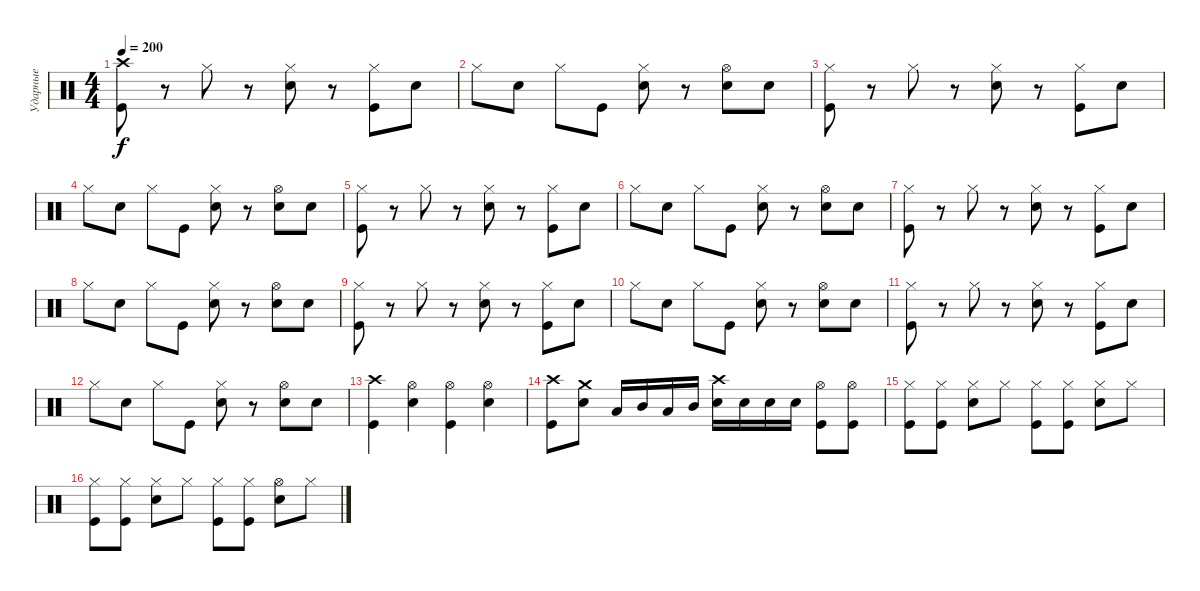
\track ("Ударные" "Ударные") {instrument percussion}
\staff {score}
\articulation defaults
\ts (4 4)
\tempo 200
\clef neutral
\ks c
("Crash high (hit)" "Kick (hit)").8{dy f} r.8 "Hi-Hat (closed)".8 r.8 ("Hi-Hat (closed)" "Electric Snare (hit)").8 r.8 ("Hi-Hat (closed)" "Kick (hit)").8 "Electric Snare (hit)".8 |
"Hi-Hat (closed)".8 "Electric Snare (hit)".8 "Hi-Hat (closed)".8 "Kick (hit)".8 ("Electric Snare (hit)" "Hi-Hat (closed)").8 r.8 ("Electric Snare (hit)" "Hi-Hat (open)").8 "Electric Snare (hit)".8 |
("Hi-Hat (closed)" "Kick (hit)").8 r.8 "Hi-Hat (closed)".8 r.8 ("Hi-Hat (closed)" "Electric Snare (hit)").8 r.8 ("Hi-Hat (closed)" "Kick (hit)").8 "Electric Snare (hit)".8 |
"Hi-Hat (closed)".8 "Electric Snare (hit)".8 "Hi-Hat (closed)".8 "Kick (hit)".8 ("Electric Snare (hit)" "Hi-Hat (closed)").8 r.8 ("Electric Snare (hit)" "Hi-Hat (open)").8 "Electric Snare (hit)".8 |
("Hi-Hat (closed)" "Kick (hit)").8 r.8 "Hi-Hat (closed)".8 r.8 ("Hi-Hat (closed)" "Electric Snare (hit)").8 r.8 ("Hi-Hat (closed)" "Kick (hit)").8 "Electric Snare (hit)".8 |
"Hi-Hat (closed)".8 "Electric Snare (hit)".8 "Hi-Hat (closed)".8 "Kick (hit)".8 ("Electric Snare (hit)" "Hi-Hat (closed)").8 r.8 ("Electric Snare (hit)" "Hi-Hat (open)").8 "Electric Snare (hit)".8 |
("Hi-Hat (closed)" "Kick (hit)").8 r.8 "Hi-Hat (closed)".8 r.8 ("Hi-Hat (closed)" "Electric Snare (hit)").8 r.8 ("Hi-Hat (closed)" "Kick (hit)").8 "Electric Snare (hit)".8 |
"Hi-Hat (closed)".8 "Electric Snare (hit)".8 "Hi-Hat (closed)".8 "Kick (hit)".8 ("Electric Snare (hit)" "Hi-Hat (closed)").8 r.8 ("Electric Snare (hit)" "Hi-Hat (open)").8 "Electric Snare (hit)".8 |
("Hi-Hat (closed)" "Kick (hit)").8 r.8 "Hi-Hat (closed)".8 r.8 ("Hi-Hat (closed)" "Electric Snare (hit)").8 r.8 ("Hi-Hat (closed)" "Kick (hit)").8 "Electric Snare (hit)".8 |
"Hi-Hat (closed)".8 "Electric Snare (hit)".8 "Hi-Hat (closed)".8 "Kick (hit)".8 ("Electric Snare (hit)" "Hi-Hat (closed)").8 r.8 ("Electric Snare (hit)" "Hi-Hat (open)").8 "Electric Snare (hit)".8 |
("Hi-Hat (closed)" "Kick (hit)").8 r.8 "Hi-Hat (closed)".8 r.8 ("Hi-Hat (closed)" "Electric Snare (hit)").8 r.8 ("Hi-Hat (closed)" "Kick (hit)").8 "Electric Snare (hit)".8 |
"Hi-Hat (closed)".8 "Electric Snare (hit)".8 "Hi-Hat (closed)".8 "Kick (hit)".8 ("Electric Snare (hit)" "Hi-Hat (closed)").8 r.8 ("Electric Snare (hit)" "Hi-Hat (open)").8 "Electric Snare (hit)".8 |
("Crash high (hit)" "Kick (hit)").4 ("Hi-Hat (open)" "Electric Snare (hit)").4 ("Hi-Hat (open)" "Kick (hit)").4 ("Hi-Hat (open)" "Electric Snare (hit)").4 |
("Kick (hit)" "Crash high (hit)").8 ("Electric Snare (hit)" "Crash medium (hit)").8 "Low Tom (hit)".16 "Mid Tom (hit)".16 "Low Tom (hit)".16 "Mid Tom (hit)".16 ("Electric Snare (hit)" "Crash high (hit)").16 "Electric Snare (hit)".16 "Electric Snare (hit)".16 "Electric Snare (hit)".16 ("Kick (hit)" "Hi-Hat (open)").8 ("Kick (hit)" "Hi-Hat (open)").8 |
("Kick (hit)" "Hi-Hat (closed)").8 ("Kick (hit)" "Hi-Hat (closed)").8 ("Electric Snare (hit)" "Hi-Hat (closed)").8 "Hi-Hat (closed)".8 ("Kick (hit)" "Hi-Hat (closed)").8 ("Kick (hit)" "Hi-Hat (closed)").8 ("Electric Snare (hit)" "Hi-Hat (closed)").8 "Hi-Hat (closed)".8 |
("Kick (hit)" "Hi-Hat (closed)").8 ("Kick (hit)" "Hi-Hat (closed)").8 ("Electric Snare (hit)" "Hi-Hat (closed)").8 "Hi-Hat (closed)".8 ("Kick (hit)" "Hi-Hat (closed)").8 ("Kick (hit)" "Hi-Hat (closed)").8 ("Electric Snare (hit)" "Hi-Hat (open)").8 "Hi-Hat (closed)".8
